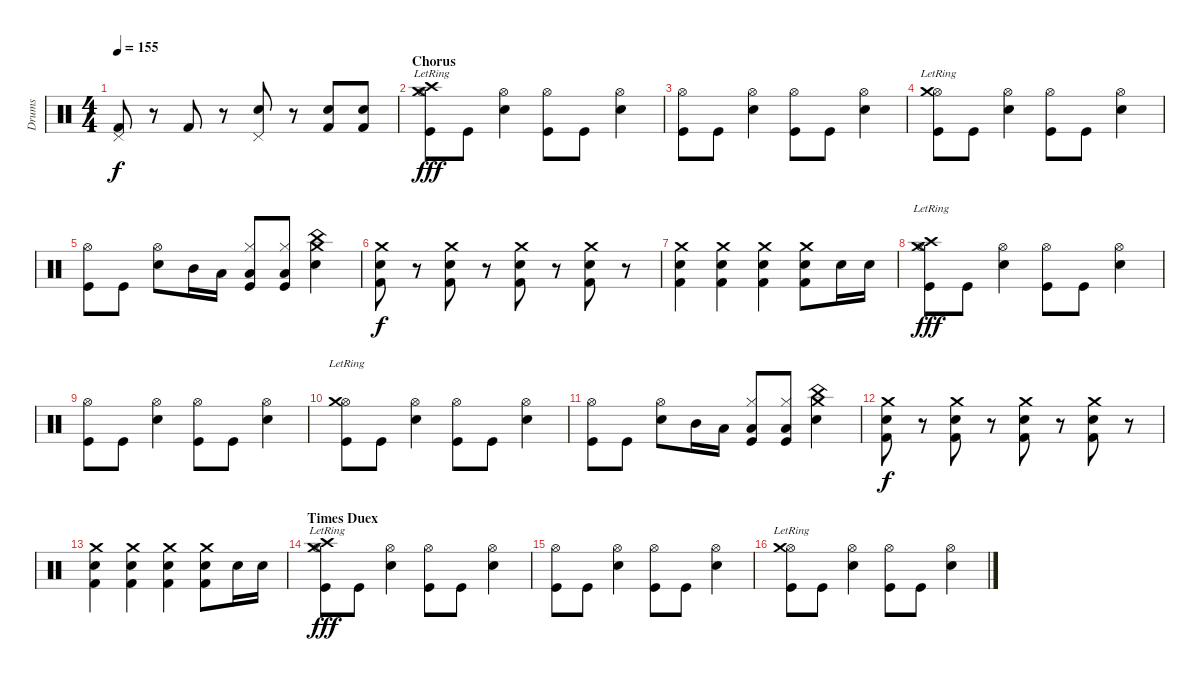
\track ("Drums" "Drums") {instrument percussion}
\staff {score}
\articulation defaults
\ts (4 4)
\tempo 155
\clef neutral
\ks c
("Pedal Hi-Hat (hit)" "Kick (hit) 2").8{dy f} r.8 "Kick (hit) 2".8 r.8 ("Pedal Hi-Hat (hit)" "Snare (hit) 2").8 r.8 ("Snare (hit) 2" "Kick (hit) 2").8 ("Snare (hit) 2" "Kick (hit) 2").8 |
\section ("" "Chorus")
("Crash high (hit)"{lr} "Hi-Hat (open)" "Crash medium (hit)"{lr} "Kick (hit)").8{dy fff} "Kick (hit)".8 ("Hi-Hat (open)" "Snare (hit) 2").4 ("Hi-Hat (open)" "Kick (hit)").8 "Kick (hit)".8 ("Hi-Hat (open)" "Snare (hit) 2").4 |
("Hi-Hat (open)" "Kick (hit)").8 "Kick (hit)".8 ("Hi-Hat (open)" "Snare (hit) 2").4 ("Hi-Hat (open)" "Kick (hit)").8 "Kick (hit)".8 ("Hi-Hat (open)" "Snare (hit) 2").4 |
("Hi-Hat (open)" "Crash medium (hit)"{lr} "Kick (hit)").8 "Kick (hit)".8 ("Hi-Hat (open)" "Snare (hit) 2").4 ("Hi-Hat (open)" "Kick (hit)").8 "Kick (hit)".8 ("Hi-Hat (open)" "Snare (hit) 2").4 |
("Hi-Hat (open)" "Kick (hit)").8 "Kick (hit)".8 ("Hi-Hat (open)" "Snare (hit) 2").8 "Mid Tom (hit)".16 "Low Tom (hit)".16 ("Hi-Hat (closed)" "Low Floor Tom (hit)" "Kick (hit)").8 ("Hi-Hat (closed)" "Low Floor Tom (hit)" "Kick (hit)").8 ("Crash medium (hit)" "China (hit)" "Snare (hit) 2").4 |
("Kick (hit) 2" "Crash medium (hit)" "Snare (hit) 2").8{dy f} r.8 ("Kick (hit) 2" "Crash medium (hit)" "Snare (hit) 2").8 r.8 ("Kick (hit) 2" "Crash medium (hit)" "Snare (hit) 2").8 r.8 ("Kick (hit) 2" "Crash medium (hit)" "Snare (hit) 2").8 r.8 |
("Crash medium (hit)" "Snare (hit) 2" "Kick (hit) 2").4 ("Crash medium (hit)" "Snare (hit) 2" "Kick (hit) 2").4 ("Crash medium (hit)" "Snare (hit) 2" "Kick (hit) 2").4 ("Crash medium (hit)" "Snare (hit) 2" "Kick (hit) 2").8 "Snare (hit) 2".16 "Snare (hit) 2".16 |
("Crash high (hit)"{lr} "Hi-Hat (open)" "Crash medium (hit)"{lr} "Kick (hit)").8{dy fff} "Kick (hit)".8 ("Hi-Hat (open)" "Snare (hit) 2").4 ("Hi-Hat (open)" "Kick (hit)").8 "Kick (hit)".8 ("Hi-Hat (open)" "Snare (hit) 2").4 |
("Hi-Hat (open)" "Kick (hit)").8 "Kick (hit)".8 ("Hi-Hat (open)" "Snare (hit) 2").4 ("Hi-Hat (open)" "Kick (hit)").8 "Kick (hit)".8 ("Hi-Hat (open)" "Snare (hit) 2").4 |
("Hi-Hat (open)" "Crash medium (hit)"{lr} "Kick (hit)").8 "Kick (hit)".8 ("Hi-Hat (open)" "Snare (hit) 2").4 ("Hi-Hat (open)" "Kick (hit)").8 "Kick (hit)".8 ("Hi-Hat (open)" "Snare (hit) 2").4 |
("Hi-Hat (open)" "Kick (hit)").8 "Kick (hit)".8 ("Hi-Hat (open)" "Snare (hit) 2").8 "Mid Tom (hit)".16 "Low Tom (hit)".16 ("Hi-Hat (closed)" "Low Floor Tom (hit)" "Kick (hit)").8 ("Hi-Hat (closed)" "Low Floor Tom (hit)" "Kick (hit)").8 ("Crash medium (hit)" "China (hit)" "Snare (hit) 2").4 |
("Kick (hit) 2" "Crash medium (hit)" "Snare (hit) 2").8{dy f} r.8 ("Kick (hit) 2" "Crash medium (hit)" "Snare (hit) 2").8 r.8 ("Kick (hit) 2" "Crash medium (hit)" "Snare (hit) 2").8 r.8 ("Kick (hit) 2" "Crash medium (hit)" "Snare (hit) 2").8 r.8 |
("Crash medium (hit)" "Snare (hit) 2" "Kick (hit) 2").4 ("Crash medium (hit)" "Snare (hit) 2" "Kick (hit) 2").4 ("Crash medium (hit)" "Snare (hit) 2" "Kick (hit) 2").4 ("Crash medium (hit)" "Snare (hit) 2" "Kick (hit) 2").8 "Snare (hit) 2".16 "Snare (hit) 2".16 |
\section ("" "Times Duex")
("Crash high (hit)"{lr} "Hi-Hat (open)" "Crash medium (hit)"{lr} "Kick (hit)").8{dy fff} "Kick (hit)".8 ("Hi-Hat (open)" "Snare (hit) 2").4 ("Hi-Hat (open)" "Kick (hit)").8 "Kick (hit)".8 ("Hi-Hat (open)" "Snare (hit) 2").4 |
("Hi-Hat (open)" "Kick (hit)").8 "Kick (hit)".8 ("Hi-Hat (open)" "Snare (hit) 2").4 ("Hi-Hat (open)" "Kick (hit)").8 "Kick (hit)".8 ("Hi-Hat (open)" "Snare (hit) 2").4 |
("Hi-Hat (open)" "Crash medium (hit)"{lr} "Kick (hit)").8 "Kick (hit)".8 ("Hi-Hat (open)" "Snare (hit) 2").4 ("Hi-Hat (open)" "Kick (hit)").8 "Kick (hit)".8 ("Hi-Hat (open)" "Snare (hit) 2").4
